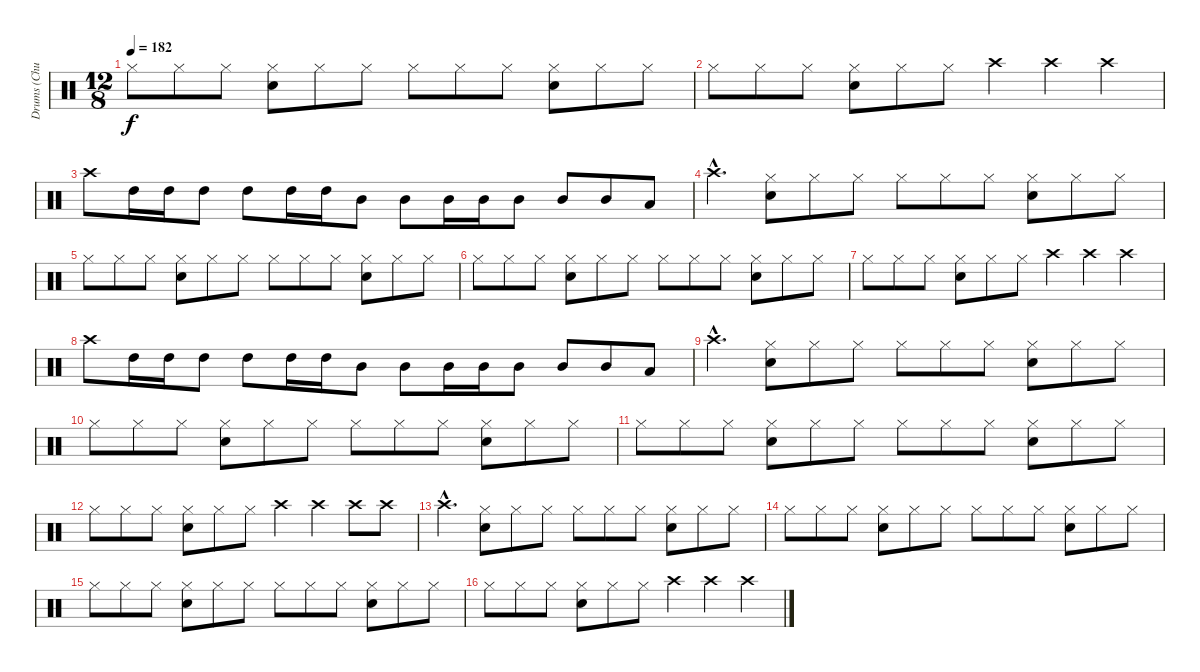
\track ("Drums (Chuck Behler)" "Drums (Chu") {instrument percussion}
\staff {score}
\articulation defaults
\ts (12 8)
\tempo 182
\clef neutral
\ks c "Hi-Hat (closed)".8{dy f} "Hi-Hat (closed)".8 "Hi-Hat (closed)".8
("Hi-Hat (closed)" "Snare (hit) 2").8 "Hi-Hat (closed)".8 "Hi-Hat (closed)".8 "Hi-Hat (closed)".8 "Hi-Hat (closed)".8 "Hi-Hat (closed)".8 ("Hi-Hat (closed)" "Snare (hit) 2").8 "Hi-Hat (closed)".8 "Hi-Hat (closed)".8 |
"Hi-Hat (closed)".8 "Hi-Hat (closed)".8 "Hi-Hat (closed)".8 ("Hi-Hat (closed)" "Snare (hit) 2").8 "Hi-Hat (closed)".8 "Hi-Hat (closed)".8 "Crash high (hit)".4 "Crash high (hit)".4 "Crash high (hit)".4 |
"Crash high (hit)".8 "High Tom (hit)".16 "High Tom (hit)".16 "High Tom (hit)".8 "High Tom (hit)".8 "High Tom (hit)".16 "High Tom (hit)".16 "Mid Tom (hit)".8 "Mid Tom (hit)".8 "Mid Tom (hit)".16 "Mid Tom (hit)".16 "Mid Tom (hit)".8 "Mid Tom (hit)".8 "Mid Tom (hit)".8 "Low Tom (hit)".8 |
"Crash high (hit)"{hac}.4{d} ("Hi-Hat (closed)" "Snare (hit) 2").8 "Hi-Hat (closed)".8 "Hi-Hat (closed)".8 "Hi-Hat (closed)".8 "Hi-Hat (closed)".8 "Hi-Hat (closed)".8 ("Hi-Hat (closed)" "Snare (hit) 2").8 "Hi-Hat (closed)".8 "Hi-Hat (closed)".8 |
"Hi-Hat (closed)".8 "Hi-Hat (closed)".8 "Hi-Hat (closed)".8 ("Hi-Hat (closed)" "Snare (hit) 2").8 "Hi-Hat (closed)".8 "Hi-Hat (closed)".8 "Hi-Hat (closed)".8 "Hi-Hat (closed)".8 "Hi-Hat (closed)".8 ("Hi-Hat (closed)" "Snare (hit) 2").8 "Hi-Hat (closed)".8 "Hi-Hat (closed)".8 |
"Hi-Hat (closed)".8 "Hi-Hat (closed)".8 "Hi-Hat (closed)".8 ("Hi-Hat (closed)" "Snare (hit) 2").8 "Hi-Hat (closed)".8 "Hi-Hat (closed)".8 "Hi-Hat (closed)".8 "Hi-Hat (closed)".8 "Hi-Hat (closed)".8 ("Hi-Hat (closed)" "Snare (hit) 2").8 "Hi-Hat (closed)".8 "Hi-Hat (closed)".8 |
"Hi-Hat (closed)".8 "Hi-Hat (closed)".8 "Hi-Hat (closed)".8 ("Hi-Hat (closed)" "Snare (hit) 2").8 "Hi-Hat (closed)".8 "Hi-Hat (closed)".8 "Crash high (hit)".4 "Crash high (hit)".4 "Crash high (hit)".4 |
"Crash high (hit)".8 "High Tom (hit)".16 "High Tom (hit)".16 "High Tom (hit)".8 "High Tom (hit)".8 "High Tom (hit)".16 "High Tom (hit)".16 "Mid Tom (hit)".8 "Mid Tom (hit)".8 "Mid Tom (hit)".16 "Mid Tom (hit)".16 "Mid Tom (hit)".8 "Mid Tom (hit)".8 "Mid Tom (hit)".8 "Low Tom (hit)".8 |
"Crash high (hit)"{hac}.4{d} ("Hi-Hat (closed)" "Snare (hit) 2").8 "Hi-Hat (closed)".8 "Hi-Hat (closed)".8 "Hi-Hat (closed)".8 "Hi-Hat (closed)".8 "Hi-Hat (closed)".8 ("Hi-Hat (closed)" "Snare (hit) 2").8 "Hi-Hat (closed)".8 "Hi-Hat (closed)".8 |
"Hi-Hat (closed)".8 "Hi-Hat (closed)".8 "Hi-Hat (closed)".8 ("Hi-Hat (closed)" "Snare (hit) 2").8 "Hi-Hat (closed)".8 "Hi-Hat (closed)".8 "Hi-Hat (closed)".8 "Hi-Hat (closed)".8 "Hi-Hat (closed)".8 ("Hi-Hat (closed)" "Snare (hit) 2").8 "Hi-Hat (closed)".8 "Hi-Hat (closed)".8 |
"Hi-Hat (closed)".8 "Hi-Hat (closed)".8 "Hi-Hat (closed)".8 ("Hi-Hat (closed)" "Snare (hit) 2").8 "Hi-Hat (closed)".8 "Hi-Hat (closed)".8 "Hi-Hat (closed)".8 "Hi-Hat (closed)".8 "Hi-Hat (closed)".8 ("Hi-Hat (closed)" "Snare (hit) 2").8 "Hi-Hat (closed)".8 "Hi-Hat (closed)".8 |
"Hi-Hat (closed)".8 "Hi-Hat (closed)".8 "Hi-Hat (closed)".8 ("Hi-Hat (closed)" "Snare (hit) 2").8 "Hi-Hat (closed)".8 "Hi-Hat (closed)".8 "Crash high (hit)".4 "Crash high (hit)".4 "Crash high (hit)".8 "Crash high (hit)".8 |
"Crash high (hit)"{hac}.4{d} ("Hi-Hat (closed)" "Snare (hit) 2").8 "Hi-Hat (closed)".8 "Hi-Hat (closed)".8 "Hi-Hat (closed)".8 "Hi-Hat (closed)".8 "Hi-Hat (closed)".8 ("Hi-Hat (closed)" "Snare (hit) 2").8 "Hi-Hat (closed)".8 "Hi-Hat (closed)".8 |
"Hi-Hat (closed)".8 "Hi-Hat (closed)".8 "Hi-Hat (closed)".8 ("Hi-Hat (closed)" "Snare (hit) 2").8 "Hi-Hat (closed)".8 "Hi-Hat (closed)".8 "Hi-Hat (closed)".8 "Hi-Hat (closed)".8 "Hi-Hat (closed)".8 ("Hi-Hat (closed)" "Snare (hit) 2").8 "Hi-Hat (closed)".8 "Hi-Hat (closed)".8 |
"Hi-Hat (closed)".8 "Hi-Hat (closed)".8 "Hi-Hat (closed)".8 ("Hi-Hat (closed)" "Snare (hit) 2").8 "Hi-Hat (closed)".8 "Hi-Hat (closed)".8 "Hi-Hat (closed)".8 "Hi-Hat (closed)".8 "Hi-Hat (closed)".8 ("Hi-Hat (closed)" "Snare (hit) 2").8 "Hi-Hat (closed)".8 "Hi-Hat (closed)".8 |
"Hi-Hat (closed)".8 "Hi-Hat (closed)".8 "Hi-Hat (closed)".8 ("Hi-Hat (closed)" "Snare (hit) 2").8 "Hi-Hat (closed)".8 "Hi-Hat (closed)".8 "Crash high (hit)".4 "Crash high (hit)".4 "Crash high (hit)".4
